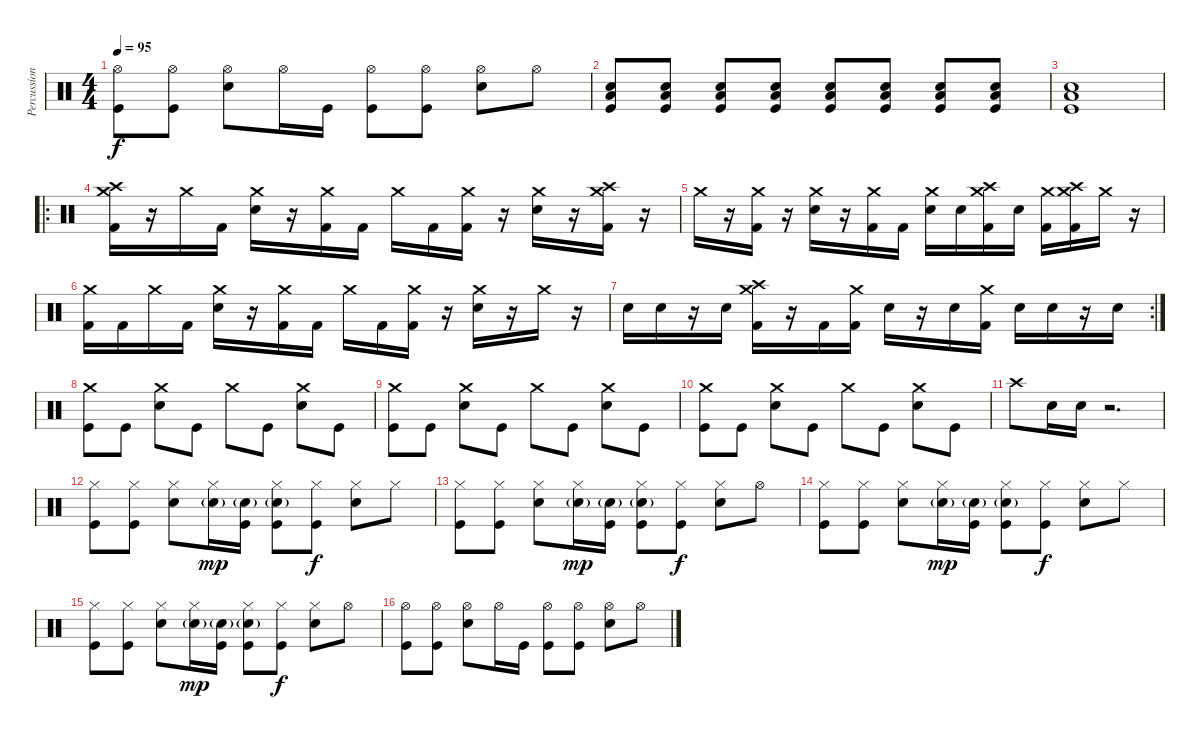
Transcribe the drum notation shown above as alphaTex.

\track ("Percussion" "Percussion") {instrument percussion}
\staff {score}
\articulation defaults
\ts (4 4)
\tempo 95
\clef neutral
\ks c
("Hi-Hat (open)" "Kick (hit)").8{dy f} ("Hi-Hat (open)" "Kick (hit)").8 ("Hi-Hat (open)" "Snare (hit) 2").8 "Hi-Hat (open)".16 "Kick (hit)".16 ("Hi-Hat (open)" "Kick (hit)").8 ("Hi-Hat (open)" "Kick (hit)").8 ("Hi-Hat (open)" "Snare (hit) 2").8 "Hi-Hat (open)".8 |
("Snare (hit) 2" "Low Tom (hit)" "Kick (hit)").8 ("Snare (hit) 2" "Low Tom (hit)" "Kick (hit)").8 ("Snare (hit) 2" "Low Tom (hit)" "Kick (hit)").8 ("Snare (hit) 2" "Low Tom (hit)" "Kick (hit)").8 ("Snare (hit) 2" "Low Tom (hit)" "Kick (hit)").8 ("Snare (hit) 2" "Low Tom (hit)" "Kick (hit)").8 ("Snare (hit) 2" "Low Tom (hit)" "Kick (hit)").8 ("Snare (hit) 2" "Low Tom (hit)" "Kick (hit)").8 |
("Snare (hit) 2" "Low Tom (hit)" "Kick (hit)").1 |
\ro
("Crash medium (hit)" "Crash high (hit)" "Kick (hit) 2").16 r.16 "Crash medium (hit)".16 "Kick (hit) 2".16 ("Crash medium (hit)" "Electric Snare (hit)").16 r.16 ("Crash medium (hit)" "Kick (hit) 2").16 "Kick (hit) 2".16 "Crash medium (hit)".16 "Kick (hit) 2".16 ("Crash medium (hit)" "Kick (hit) 2").16 r.16 ("Crash medium (hit)" "Electric Snare (hit)").16 r.16 ("Crash medium (hit)" "Crash high (hit)" "Kick (hit) 2").16 r.16 |
"Crash medium (hit)".16 r.16 ("Crash medium (hit)" "Kick (hit) 2").16 r.16 ("Crash medium (hit)" "Electric Snare (hit)").16 r.16 ("Crash medium (hit)" "Kick (hit) 2").16 "Kick (hit) 2".16 ("Crash medium (hit)" "Electric Snare (hit)").16 "Electric Snare (hit)".16 ("Crash medium (hit)" "Crash high (hit)" "Kick (hit) 2").16 "Electric Snare (hit)".16 ("Crash medium (hit)" "Kick (hit) 2").16 ("Crash medium (hit)" "Crash high (hit)" "Kick (hit) 2").16 "Crash medium (hit)".16 r.16 |
("Crash medium (hit)" "Kick (hit) 2").16 "Kick (hit) 2".16 "Crash medium (hit)".16 "Kick (hit) 2".16 ("Crash medium (hit)" "Electric Snare (hit)").16 r.16 ("Crash medium (hit)" "Kick (hit) 2").16 "Kick (hit) 2".16 "Crash medium (hit)".16 "Kick (hit) 2".16 ("Crash medium (hit)" "Kick (hit) 2").16 r.16 ("Crash medium (hit)" "Electric Snare (hit)").16 r.16 "Crash medium (hit)".16 r.16 |
\rc 2 "Electric Snare (hit)".16 "Electric Snare (hit)".16
r.16 "Electric Snare (hit)".16 ("Crash medium (hit)" "Crash high (hit)" "Kick (hit) 2").16 r.16 "Kick (hit) 2".16 ("Crash medium (hit)" "Kick (hit) 2").16 "Electric Snare (hit)".16 r.16 "Electric Snare (hit)".16 ("Crash medium (hit)" "Kick (hit) 2").16 "Electric Snare (hit)".16 "Electric Snare (hit)".16 r.16 "Electric Snare (hit)".16 |
("Crash medium (hit)" "Kick (hit)").8 "Kick (hit)".8 ("Crash medium (hit)" "Snare (hit) 2").8 "Kick (hit)".8 "Crash medium (hit)".8 "Kick (hit)".8 ("Crash medium (hit)" "Snare (hit) 2").8 "Kick (hit)".8 |
("Crash medium (hit)" "Kick (hit)").8 "Kick (hit)".8 ("Crash medium (hit)" "Snare (hit) 2").8 "Kick (hit)".8 "Crash medium (hit)".8 "Kick (hit)".8 ("Crash medium (hit)" "Snare (hit) 2").8 "Kick (hit)".8 |
("Crash medium (hit)" "Kick (hit)").8 "Kick (hit)".8 ("Crash medium (hit)" "Snare (hit) 2").8 "Kick (hit)".8 "Crash medium (hit)".8 "Kick (hit)".8 ("Crash medium (hit)" "Snare (hit) 2").8 "Kick (hit)".8 |
"Crash high (hit)".8 "Snare (hit) 2".16 "Snare (hit) 2".16 r.2{d} |
("Hi-Hat (closed)" "Kick (hit)").8 ("Hi-Hat (closed)" "Kick (hit)").8 ("Hi-Hat (closed)" "Electric Snare (hit)").8 ("Hi-Hat (closed)" "Electric Snare (hit)"{g}).16{dy mp} ("Electric Snare (hit)"{g} "Kick (hit)").16 ("Hi-Hat (closed)" "Electric Snare (hit)"{g} "Kick (hit)").8 ("Hi-Hat (closed)" "Kick (hit)").8{dy f} ("Hi-Hat (closed)" "Snare (hit) 2").8 "Hi-Hat (closed)".8 |
("Hi-Hat (closed)" "Kick (hit)").8 ("Hi-Hat (closed)" "Kick (hit)").8 ("Hi-Hat (closed)" "Electric Snare (hit)").8 ("Hi-Hat (closed)" "Electric Snare (hit)"{g}).16{dy mp} ("Electric Snare (hit)"{g} "Kick (hit)").16 ("Hi-Hat (closed)" "Electric Snare (hit)"{g} "Kick (hit)").8 ("Hi-Hat (closed)" "Kick (hit)").8{dy f} ("Hi-Hat (closed)" "Electric Snare (hit)").8 "Hi-Hat (open)".8 |
("Hi-Hat (closed)" "Kick (hit)").8 ("Hi-Hat (closed)" "Kick (hit)").8 ("Hi-Hat (closed)" "Electric Snare (hit)").8 ("Hi-Hat (closed)" "Electric Snare (hit)"{g}).16{dy mp} ("Electric Snare (hit)"{g} "Kick (hit)").16 ("Hi-Hat (closed)" "Electric Snare (hit)"{g} "Kick (hit)").8 ("Hi-Hat (closed)" "Kick (hit)").8{dy f} ("Hi-Hat (closed)" "Snare (hit) 2").8 "Hi-Hat (closed)".8 |
("Hi-Hat (closed)" "Kick (hit)").8 ("Hi-Hat (closed)" "Kick (hit)").8 ("Hi-Hat (closed)" "Electric Snare (hit)").8 ("Hi-Hat (closed)" "Electric Snare (hit)"{g}).16{dy mp} ("Electric Snare (hit)"{g} "Kick (hit)").16 ("Hi-Hat (closed)" "Electric Snare (hit)"{g} "Kick (hit)").8 ("Hi-Hat (closed)" "Kick (hit)").8{dy f} ("Hi-Hat (closed)" "Electric Snare (hit)").8 "Hi-Hat (open)".8 |
("Hi-Hat (open)" "Kick (hit)").8 ("Hi-Hat (open)" "Kick (hit)").8 ("Hi-Hat (open)" "Snare (hit) 2").8 "Hi-Hat (open)".16 "Kick (hit)".16 ("Hi-Hat (open)" "Kick (hit)").8 ("Hi-Hat (open)" "Kick (hit)").8 ("Hi-Hat (open)" "Snare (hit) 2").8 "Hi-Hat (open)".8
